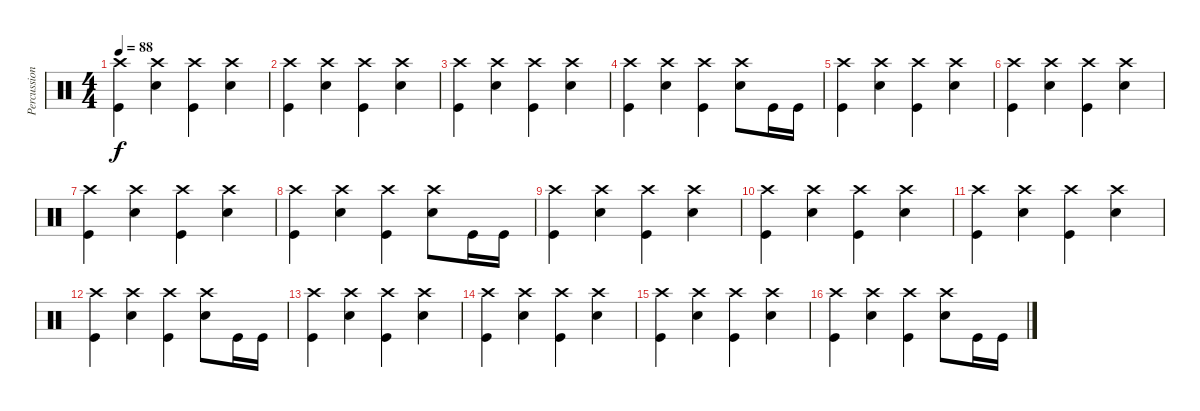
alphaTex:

\track ("Percussion" "Percussion") {instrument percussion}
\staff {score}
\articulation defaults
\ts (4 4)
\tempo 88
\clef neutral
\ks c
("Kick (hit)" "Crash high (hit)").4{dy f} ("Snare (hit) 2" "Crash high (hit)").4 ("Kick (hit)" "Crash high (hit)").4 ("Snare (hit) 2" "Crash high (hit)").4 |
("Kick (hit)" "Crash high (hit)").4 ("Snare (hit) 2" "Crash high (hit)").4 ("Kick (hit)" "Crash high (hit)").4 ("Snare (hit) 2" "Crash high (hit)").4 |
("Kick (hit)" "Crash high (hit)").4 ("Snare (hit) 2" "Crash high (hit)").4 ("Kick (hit)" "Crash high (hit)").4 ("Snare (hit) 2" "Crash high (hit)").4 |
("Kick (hit)" "Crash high (hit)").4 ("Snare (hit) 2" "Crash high (hit)").4 ("Kick (hit)" "Crash high (hit)").4 ("Snare (hit) 2" "Crash high (hit)").8 "Kick (hit)".16 "Kick (hit)".16 |
("Kick (hit)" "Crash high (hit)").4 ("Snare (hit) 2" "Crash high (hit)").4 ("Kick (hit)" "Crash high (hit)").4 ("Snare (hit) 2" "Crash high (hit)").4 |
("Kick (hit)" "Crash high (hit)").4 ("Snare (hit) 2" "Crash high (hit)").4 ("Kick (hit)" "Crash high (hit)").4 ("Snare (hit) 2" "Crash high (hit)").4 |
("Kick (hit)" "Crash high (hit)").4 ("Snare (hit) 2" "Crash high (hit)").4 ("Kick (hit)" "Crash high (hit)").4 ("Snare (hit) 2" "Crash high (hit)").4 |
("Kick (hit)" "Crash high (hit)").4 ("Snare (hit) 2" "Crash high (hit)").4 ("Kick (hit)" "Crash high (hit)").4 ("Snare (hit) 2" "Crash high (hit)").8 "Kick (hit)".16 "Kick (hit)".16 |
("Kick (hit)" "Crash high (hit)").4 ("Snare (hit) 2" "Crash high (hit)").4 ("Kick (hit)" "Crash high (hit)").4 ("Snare (hit) 2" "Crash high (hit)").4 |
("Kick (hit)" "Crash high (hit)").4 ("Snare (hit) 2" "Crash high (hit)").4 ("Kick (hit)" "Crash high (hit)").4 ("Snare (hit) 2" "Crash high (hit)").4 |
("Kick (hit)" "Crash high (hit)").4 ("Snare (hit) 2" "Crash high (hit)").4 ("Kick (hit)" "Crash high (hit)").4 ("Snare (hit) 2" "Crash high (hit)").4 |
("Kick (hit)" "Crash high (hit)").4 ("Snare (hit) 2" "Crash high (hit)").4 ("Kick (hit)" "Crash high (hit)").4 ("Snare (hit) 2" "Crash high (hit)").8 "Kick (hit)".16 "Kick (hit)".16 |
("Kick (hit)" "Crash high (hit)").4 ("Snare (hit) 2" "Crash high (hit)").4 ("Kick (hit)" "Crash high (hit)").4 ("Snare (hit) 2" "Crash high (hit)").4 |
("Kick (hit)" "Crash high (hit)").4 ("Snare (hit) 2" "Crash high (hit)").4 ("Kick (hit)" "Crash high (hit)").4 ("Snare (hit) 2" "Crash high (hit)").4 |
("Kick (hit)" "Crash high (hit)").4 ("Snare (hit) 2" "Crash high (hit)").4 ("Kick (hit)" "Crash high (hit)").4 ("Snare (hit) 2" "Crash high (hit)").4 |
("Kick (hit)" "Crash high (hit)").4 ("Snare (hit) 2" "Crash high (hit)").4 ("Kick (hit)" "Crash high (hit)").4 ("Snare (hit) 2" "Crash high (hit)").8 "Kick (hit)".16 "Kick (hit)".16
